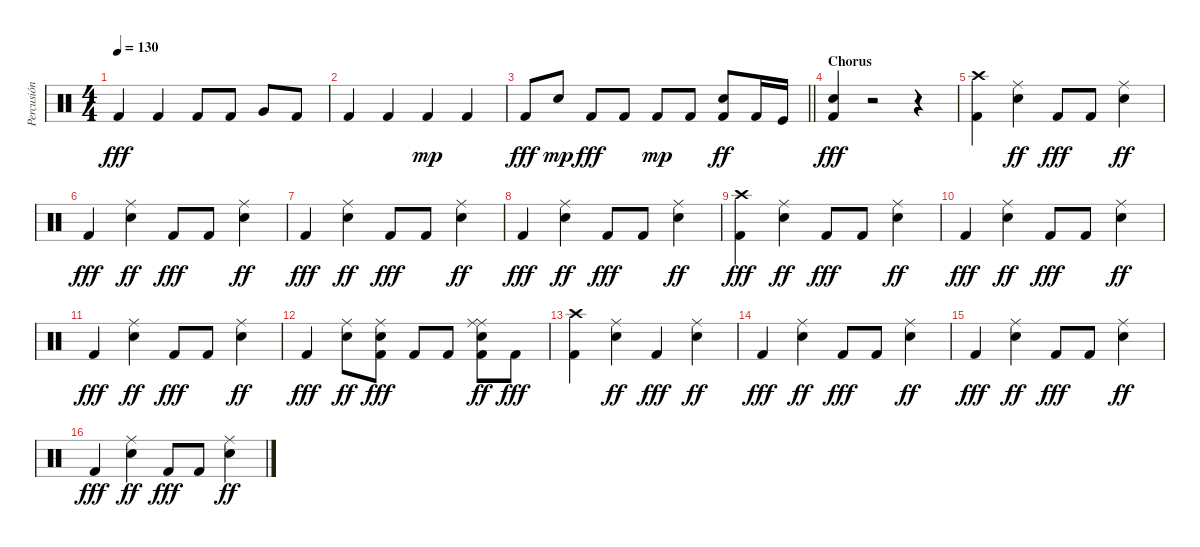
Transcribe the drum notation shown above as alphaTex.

\track ("Percusión" "Percusión") {instrument percussion}
\staff {score}
\articulation defaults
\ts (4 4)
\tempo 130
\clef neutral
\ks c "Kick (hit) 2".4{dy fff} "Kick (hit) 2".4 "Kick (hit) 2".8 "Kick (hit) 2".8 "Very Low Tom (hit)".8 "Kick (hit) 2".8
|
"Kick (hit) 2".4 "Kick (hit) 2".4 "Kick (hit) 2".4{dy mp} "Kick (hit) 2".4 |
\barLineRight lightlight "Kick (hit) 2".8{dy fff} "Snare (hit) 2".8{dy mp} "Kick (hit) 2".8{dy fff} "Kick (hit) 2".8 "Kick (hit) 2".8{dy mp} "Kick (hit) 2".8
("Kick (hit) 2" "Snare (hit) 2").8{dy ff} "Kick (hit) 2".16 "Kick (hit)".16 |
\section ("" "Chorus")
("Kick (hit) 2" "Snare (hit) 2").4{dy fff} r.2{volume 0} r.4{volume 16} |
("Kick (hit) 2" "Crash high (hit)").4 ("Snare (hit) 2" "Ride (middle)").4{dy ff} "Kick (hit) 2".8{dy fff} "Kick (hit) 2".8 ("Snare (hit) 2" "Ride (middle)").4{dy ff} |
"Kick (hit) 2".4{dy fff} ("Snare (hit) 2" "Ride (middle)").4{dy ff} "Kick (hit) 2".8{dy fff} "Kick (hit) 2".8 ("Snare (hit) 2" "Ride (middle)").4{dy ff} |
"Kick (hit) 2".4{dy fff} ("Snare (hit) 2" "Ride (middle)").4{dy ff} "Kick (hit) 2".8{dy fff} "Kick (hit) 2".8 ("Snare (hit) 2" "Ride (middle)").4{dy ff} |
"Kick (hit) 2".4{dy fff} ("Snare (hit) 2" "Ride (middle)").4{dy ff} "Kick (hit) 2".8{dy fff} "Kick (hit) 2".8 ("Snare (hit) 2" "Ride (middle)").4{dy ff} |
("Kick (hit) 2" "Crash high (hit)").4{dy fff} ("Snare (hit) 2" "Ride (middle)").4{dy ff} "Kick (hit) 2".8{dy fff} "Kick (hit) 2".8 ("Snare (hit) 2" "Ride (middle)").4{dy ff} |
"Kick (hit) 2".4{dy fff} ("Snare (hit) 2" "Ride (middle)").4{dy ff} "Kick (hit) 2".8{dy fff} "Kick (hit) 2".8 ("Snare (hit) 2" "Ride (middle)").4{dy ff} |
"Kick (hit) 2".4{dy fff} ("Snare (hit) 2" "Ride (middle)").4{dy ff} "Kick (hit) 2".8{dy fff} "Kick (hit) 2".8 ("Snare (hit) 2" "Ride (middle)").4{dy ff} |
"Kick (hit) 2".4{dy fff} ("Snare (hit) 2" "Ride (middle)").8{dy ff} ("Kick (hit) 2" "Ride (middle)" "Snare (hit) 2").8{dy fff} "Kick (hit) 2".8 "Kick (hit) 2".8 ("Kick (hit) 2" "Ride (middle)" "Snare (hit) 2" "Ride (middle)").8{dy ff} "Kick (hit) 2".8{dy fff} |
("Kick (hit) 2" "Crash high (hit)").4 ("Snare (hit) 2" "Ride (middle)").4{dy ff} "Kick (hit) 2".4{dy fff} ("Snare (hit) 2" "Ride (middle)").4{dy ff} |
"Kick (hit) 2".4{dy fff} ("Snare (hit) 2" "Ride (middle)").4{dy ff} "Kick (hit) 2".8{dy fff} "Kick (hit) 2".8 ("Snare (hit) 2" "Ride (middle)").4{dy ff} |
"Kick (hit) 2".4{dy fff} ("Snare (hit) 2" "Ride (middle)").4{dy ff} "Kick (hit) 2".8{dy fff} "Kick (hit) 2".8 ("Snare (hit) 2" "Ride (middle)").4{dy ff} |
"Kick (hit) 2".4{dy fff} ("Snare (hit) 2" "Ride (middle)").4{dy ff} "Kick (hit) 2".8{dy fff} "Kick (hit) 2".8 ("Snare (hit) 2" "Ride (middle)").4{dy ff}
